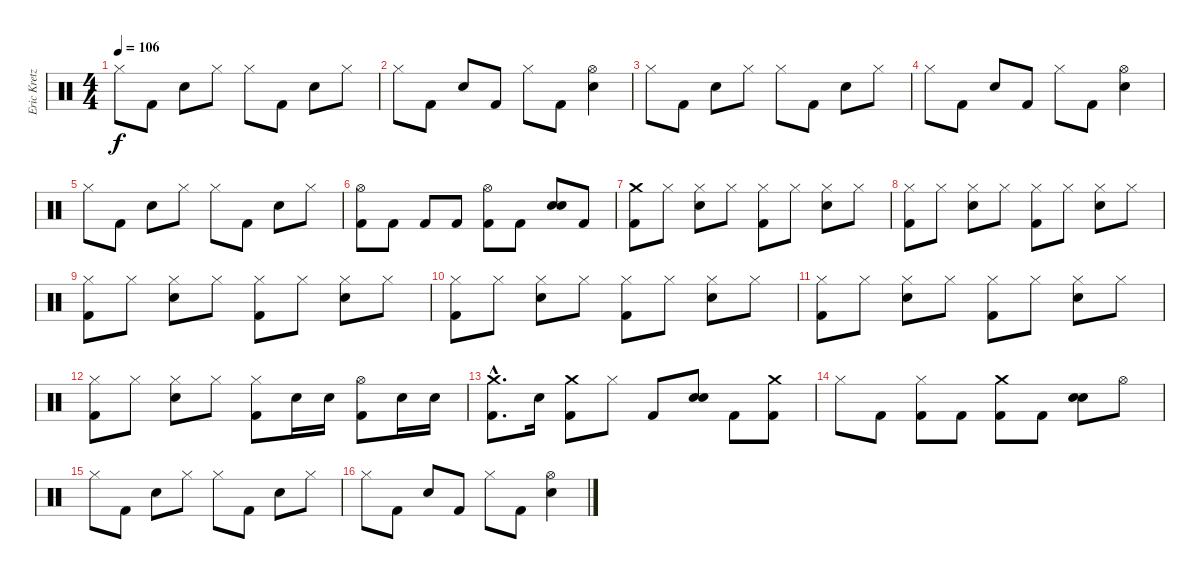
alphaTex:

\track ("Eric Kretz" "Eric Kretz") {instrument percussion}
\staff {score}
\articulation defaults
\ts (4 4)
\tempo 106
\clef neutral
\ks c "Hi-Hat (closed)".8{dy f} "Kick (hit) 2".8 "Electric Snare (hit)".8 "Hi-Hat (closed)".8 "Hi-Hat (closed)".8 "Kick (hit) 2".8 "Electric Snare (hit)".8 "Hi-Hat (closed)".8
|
"Hi-Hat (closed)".8 "Kick (hit) 2".8 "Electric Snare (hit)".8 "Kick (hit) 2".8 "Hi-Hat (closed)".8 "Kick (hit) 2".8 ("Hi-Hat (open)" "Electric Snare (hit)").4 |
"Hi-Hat (closed)".8 "Kick (hit) 2".8 "Electric Snare (hit)".8 "Hi-Hat (closed)".8 "Hi-Hat (closed)".8 "Kick (hit) 2".8 "Electric Snare (hit)".8 "Hi-Hat (closed)".8 |
"Hi-Hat (closed)".8 "Kick (hit) 2".8 "Electric Snare (hit)".8 "Kick (hit) 2".8 "Hi-Hat (closed)".8 "Kick (hit) 2".8 ("Hi-Hat (open)" "Electric Snare (hit)").4 |
"Hi-Hat (closed)".8 "Kick (hit) 2".8 "Electric Snare (hit)".8 "Hi-Hat (closed)".8 "Hi-Hat (closed)".8 "Kick (hit) 2".8 "Electric Snare (hit)".8 "Hi-Hat (closed)".8 |
("Hi-Hat (open)" "Kick (hit) 2").8 "Kick (hit) 2".8 "Kick (hit) 2".8 "Kick (hit) 2".8 ("Hi-Hat (open)" "Kick (hit) 2").8 "Kick (hit) 2".8 ("Electric Snare (hit)" "Electric Snare (hit)").8 "Kick (hit) 2".8 |
("Crash medium (hit)" "Kick (hit) 2").8 "Hi-Hat (closed)".8 ("Hi-Hat (closed)" "Electric Snare (hit)").8 "Hi-Hat (closed)".8 ("Hi-Hat (closed)" "Kick (hit) 2").8 "Hi-Hat (closed)".8 ("Hi-Hat (closed)" "Electric Snare (hit)").8 "Hi-Hat (closed)".8 |
("Hi-Hat (closed)" "Kick (hit) 2").8 "Hi-Hat (closed)".8 ("Hi-Hat (closed)" "Electric Snare (hit)").8 "Hi-Hat (closed)".8 ("Hi-Hat (closed)" "Kick (hit) 2").8 "Hi-Hat (closed)".8 ("Hi-Hat (closed)" "Electric Snare (hit)").8 "Hi-Hat (closed)".8 |
("Hi-Hat (closed)" "Kick (hit) 2").8 "Hi-Hat (closed)".8 ("Hi-Hat (closed)" "Electric Snare (hit)").8 "Hi-Hat (closed)".8 ("Hi-Hat (closed)" "Kick (hit) 2").8 "Hi-Hat (closed)".8 ("Hi-Hat (closed)" "Electric Snare (hit)").8 "Hi-Hat (closed)".8 |
("Hi-Hat (closed)" "Kick (hit) 2").8 "Hi-Hat (closed)".8 ("Hi-Hat (closed)" "Electric Snare (hit)").8 "Hi-Hat (closed)".8 ("Hi-Hat (closed)" "Kick (hit) 2").8 "Hi-Hat (closed)".8 ("Hi-Hat (closed)" "Electric Snare (hit)").8 "Hi-Hat (closed)".8 |
("Hi-Hat (closed)" "Kick (hit) 2").8 "Hi-Hat (closed)".8 ("Hi-Hat (closed)" "Electric Snare (hit)").8 "Hi-Hat (closed)".8 ("Hi-Hat (closed)" "Kick (hit) 2").8 "Hi-Hat (closed)".8 ("Hi-Hat (closed)" "Electric Snare (hit)").8 "Hi-Hat (closed)".8 |
("Hi-Hat (closed)" "Kick (hit) 2").8 "Hi-Hat (closed)".8 ("Hi-Hat (closed)" "Electric Snare (hit)").8 "Hi-Hat (closed)".8 ("Hi-Hat (closed)" "Kick (hit) 2").8 "Electric Snare (hit)".16 "Electric Snare (hit)".16 ("Hi-Hat (open)" "Kick (hit) 2").8 "Electric Snare (hit)".16 "Electric Snare (hit)".16 |
("Crash medium (hit)"{hac} "Kick (hit) 2"{hac}).8{d} "Electric Snare (hit)".16 ("Crash medium (hit)" "Kick (hit) 2").8 "Hi-Hat (closed)".8 "Kick (hit) 2".8 ("Electric Snare (hit)" "Electric Snare (hit)").8 "Kick (hit) 2".8 ("Crash medium (hit)" "Kick (hit) 2").8 |
"Hi-Hat (closed)".8 "Kick (hit) 2".8 ("Hi-Hat (closed)" "Kick (hit) 2").8 "Kick (hit) 2".8 ("Crash medium (hit)" "Kick (hit) 2").8 "Kick (hit) 2".8 ("Electric Snare (hit)" "Electric Snare (hit)").8 "Hi-Hat (open)".8 |
"Hi-Hat (closed)".8 "Kick (hit) 2".8 "Electric Snare (hit)".8 "Hi-Hat (closed)".8 "Hi-Hat (closed)".8 "Kick (hit) 2".8 "Electric Snare (hit)".8 "Hi-Hat (closed)".8 |
"Hi-Hat (closed)".8 "Kick (hit) 2".8 "Electric Snare (hit)".8 "Kick (hit) 2".8 "Hi-Hat (closed)".8 "Kick (hit) 2".8 ("Hi-Hat (open)" "Electric Snare (hit)").4
